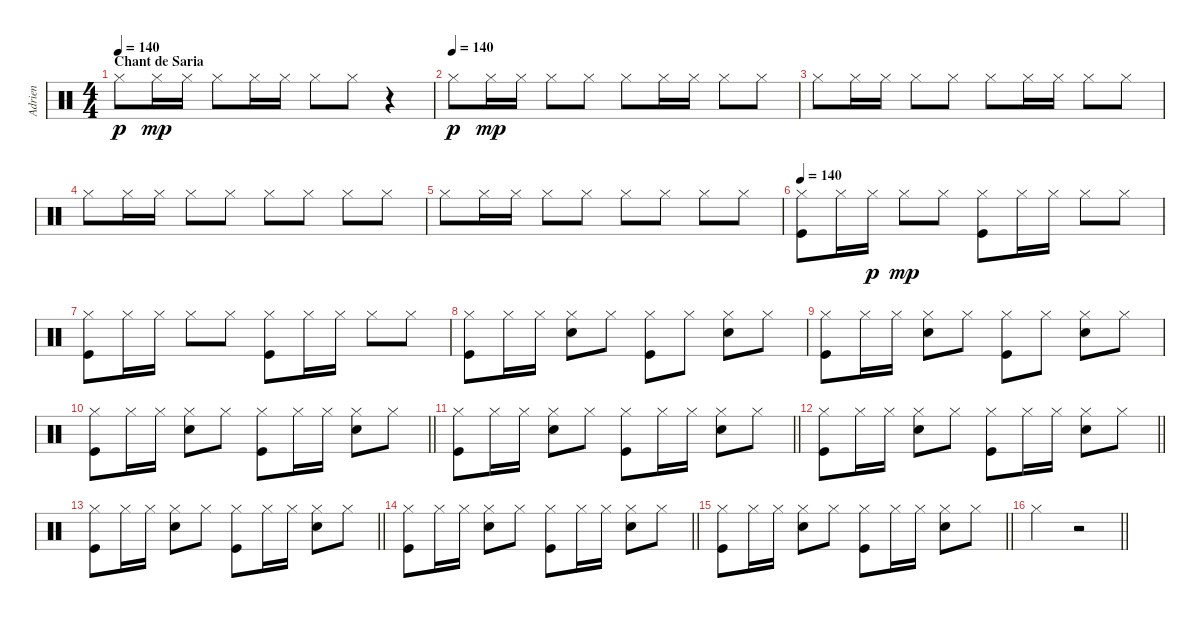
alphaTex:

\track ("Adrien" "Adrien") {instrument percussion}
\staff {score}
\articulation defaults
\ts (4 4)
\section ("" "Chant de Saria")
\tempo 140
\clef neutral
\ks c "Hi-Hat (closed)".8{dy p} "Hi-Hat (closed)".16{dy mp} "Hi-Hat (closed)".16 "Hi-Hat (closed)".8 "Hi-Hat (closed)".16 "Hi-Hat (closed)".16 "Hi-Hat (closed)".8 "Hi-Hat (closed)".8
r.4 |
\tempo (140)
"Hi-Hat (closed)".8{dy p} "Hi-Hat (closed)".16{dy mp} "Hi-Hat (closed)".16 "Hi-Hat (closed)".8 "Hi-Hat (closed)".8 "Hi-Hat (closed)".8 "Hi-Hat (closed)".16 "Hi-Hat (closed)".16 "Hi-Hat (closed)".8 "Hi-Hat (closed)".8 |
"Hi-Hat (closed)".8 "Hi-Hat (closed)".16 "Hi-Hat (closed)".16 "Hi-Hat (closed)".8 "Hi-Hat (closed)".8 "Hi-Hat (closed)".8 "Hi-Hat (closed)".16 "Hi-Hat (closed)".16 "Hi-Hat (closed)".8 "Hi-Hat (closed)".8 |
"Hi-Hat (closed)".8 "Hi-Hat (closed)".16 "Hi-Hat (closed)".16 "Hi-Hat (closed)".8 "Hi-Hat (closed)".8 "Hi-Hat (closed)".8 "Hi-Hat (closed)".8 "Hi-Hat (closed)".8 "Hi-Hat (closed)".8 |
"Hi-Hat (closed)".8 "Hi-Hat (closed)".16 "Hi-Hat (closed)".16 "Hi-Hat (closed)".8 "Hi-Hat (closed)".8 "Hi-Hat (closed)".8 "Hi-Hat (closed)".8 "Hi-Hat (closed)".8 "Hi-Hat (closed)".8 |
\tempo 140
("Kick (hit)" "Hi-Hat (closed)").8 "Hi-Hat (closed)".16 "Hi-Hat (closed)".16{dy p} "Hi-Hat (closed)".8{dy mp} "Hi-Hat (closed)".8 ("Kick (hit)" "Hi-Hat (closed)").8 "Hi-Hat (closed)".16 "Hi-Hat (closed)".16 "Hi-Hat (closed)".8 "Hi-Hat (closed)".8 |
("Kick (hit)" "Hi-Hat (closed)").8 "Hi-Hat (closed)".16 "Hi-Hat (closed)".16 "Hi-Hat (closed)".8 "Hi-Hat (closed)".8 ("Kick (hit)" "Hi-Hat (closed)").8 "Hi-Hat (closed)".16 "Hi-Hat (closed)".16 "Hi-Hat (closed)".8 "Hi-Hat (closed)".8 |
("Kick (hit)" "Hi-Hat (closed)").8 "Hi-Hat (closed)".16 "Hi-Hat (closed)".16 ("Snare (hit) 2" "Hi-Hat (closed)").8 "Hi-Hat (closed)".8 ("Kick (hit)" "Hi-Hat (closed)").8 "Hi-Hat (closed)".8 ("Snare (hit) 2" "Hi-Hat (closed)").8 "Hi-Hat (closed)".8 |
("Kick (hit)" "Hi-Hat (closed)").8 "Hi-Hat (closed)".16 "Hi-Hat (closed)".16 ("Snare (hit) 2" "Hi-Hat (closed)").8 "Hi-Hat (closed)".8 ("Kick (hit)" "Hi-Hat (closed)").8 "Hi-Hat (closed)".8 ("Snare (hit) 2" "Hi-Hat (closed)").8 "Hi-Hat (closed)".8 |
\barLineRight lightlight
("Kick (hit)" "Hi-Hat (closed)").8 "Hi-Hat (closed)".16 "Hi-Hat (closed)".16 ("Snare (hit) 2" "Hi-Hat (closed)").8 "Hi-Hat (closed)".8 ("Kick (hit)" "Hi-Hat (closed)").8 "Hi-Hat (closed)".16 "Hi-Hat (closed)".16 ("Snare (hit) 2" "Hi-Hat (closed)").8 "Hi-Hat (closed)".8 |
\barLineRight lightlight
("Kick (hit)" "Hi-Hat (closed)").8 "Hi-Hat (closed)".16 "Hi-Hat (closed)".16 ("Snare (hit) 2" "Hi-Hat (closed)").8 "Hi-Hat (closed)".8 ("Kick (hit)" "Hi-Hat (closed)").8 "Hi-Hat (closed)".16 "Hi-Hat (closed)".16 ("Snare (hit) 2" "Hi-Hat (closed)").8 "Hi-Hat (closed)".8 |
\barLineRight lightlight
("Kick (hit)" "Hi-Hat (closed)").8 "Hi-Hat (closed)".16 "Hi-Hat (closed)".16 ("Snare (hit) 2" "Hi-Hat (closed)").8 "Hi-Hat (closed)".8 ("Kick (hit)" "Hi-Hat (closed)").8 "Hi-Hat (closed)".16 "Hi-Hat (closed)".16 ("Snare (hit) 2" "Hi-Hat (closed)").8 "Hi-Hat (closed)".8 |
\barLineRight lightlight
("Kick (hit)" "Hi-Hat (closed)").8 "Hi-Hat (closed)".16 "Hi-Hat (closed)".16 ("Snare (hit) 2" "Hi-Hat (closed)").8 "Hi-Hat (closed)".8 ("Kick (hit)" "Hi-Hat (closed)").8 "Hi-Hat (closed)".16 "Hi-Hat (closed)".16 ("Snare (hit) 2" "Hi-Hat (closed)").8 "Hi-Hat (closed)".8 |
\barLineRight lightlight
("Kick (hit)" "Hi-Hat (closed)").8 "Hi-Hat (closed)".16 "Hi-Hat (closed)".16 ("Snare (hit) 2" "Hi-Hat (closed)").8 "Hi-Hat (closed)".8 ("Kick (hit)" "Hi-Hat (closed)").8 "Hi-Hat (closed)".16 "Hi-Hat (closed)".16 ("Snare (hit) 2" "Hi-Hat (closed)").8 "Hi-Hat (closed)".8 |
\barLineRight lightlight
("Kick (hit)" "Hi-Hat (closed)").8 "Hi-Hat (closed)".16 "Hi-Hat (closed)".16 ("Snare (hit) 2" "Hi-Hat (closed)").8 "Hi-Hat (closed)".8 ("Kick (hit)" "Hi-Hat (closed)").8 "Hi-Hat (closed)".16 "Hi-Hat (closed)".16 ("Snare (hit) 2" "Hi-Hat (closed)").8 "Hi-Hat (closed)".8 |
\barLineRight lightlight "Hi-Hat (closed)".2
r.2
